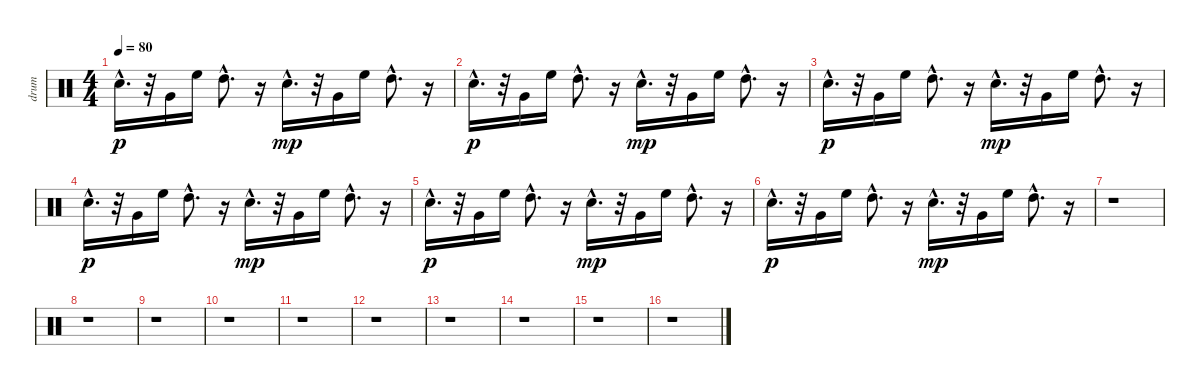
\track ("drum" "drum") {instrument percussion}
\staff {score}
\articulation defaults
\ts (4 4)
\tempo 80
\clef neutral
\ks c "Electric Snare (hit)"{hac}.16{d dy p}
r.32 "Very Low Tom (hit)".16 "High Floor Tom (hit)".16 "High Tom (hit)"{hac}.8{d} r.16 "Electric Snare (hit)"{hac}.16{d dy mp} r.32 "Very Low Tom (hit)".16 "High Floor Tom (hit)".16 "High Tom (hit)"{hac}.8{d} r.16 |
"Electric Snare (hit)"{hac}.16{d dy p} r.32 "Very Low Tom (hit)".16 "High Floor Tom (hit)".16 "High Tom (hit)"{hac}.8{d} r.16 "Electric Snare (hit)"{hac}.16{d dy mp} r.32 "Very Low Tom (hit)".16 "High Floor Tom (hit)".16 "High Tom (hit)"{hac}.8{d} r.16 |
"Electric Snare (hit)"{hac}.16{d dy p} r.32 "Very Low Tom (hit)".16 "High Floor Tom (hit)".16 "High Tom (hit)"{hac}.8{d} r.16 "Electric Snare (hit)"{hac}.16{d dy mp} r.32 "Very Low Tom (hit)".16 "High Floor Tom (hit)".16 "High Tom (hit)"{hac}.8{d} r.16 |
"Electric Snare (hit)"{hac}.16{d dy p} r.32 "Very Low Tom (hit)".16 "High Floor Tom (hit)".16 "High Tom (hit)"{hac}.8{d} r.16 "Electric Snare (hit)"{hac}.16{d dy mp} r.32 "Very Low Tom (hit)".16 "High Floor Tom (hit)".16 "High Tom (hit)"{hac}.8{d} r.16 |
"Electric Snare (hit)"{hac}.16{d dy p} r.32 "Very Low Tom (hit)".16 "High Floor Tom (hit)".16 "High Tom (hit)"{hac}.8{d} r.16 "Electric Snare (hit)"{hac}.16{d dy mp} r.32 "Very Low Tom (hit)".16 "High Floor Tom (hit)".16 "High Tom (hit)"{hac}.8{d} r.16 |
"Electric Snare (hit)"{hac}.16{d dy p} r.32 "Very Low Tom (hit)".16 "High Floor Tom (hit)".16 "High Tom (hit)"{hac}.8{d} r.16 "Electric Snare (hit)"{hac}.16{d dy mp} r.32 "Very Low Tom (hit)".16 "High Floor Tom (hit)".16 "High Tom (hit)"{hac}.8{d} r.16 |
r.1 |
r.1 |
r.1 |
r.1 |
r.1 |
r.1 |
r.1 |
r.1 |
r.1 |
r.1
